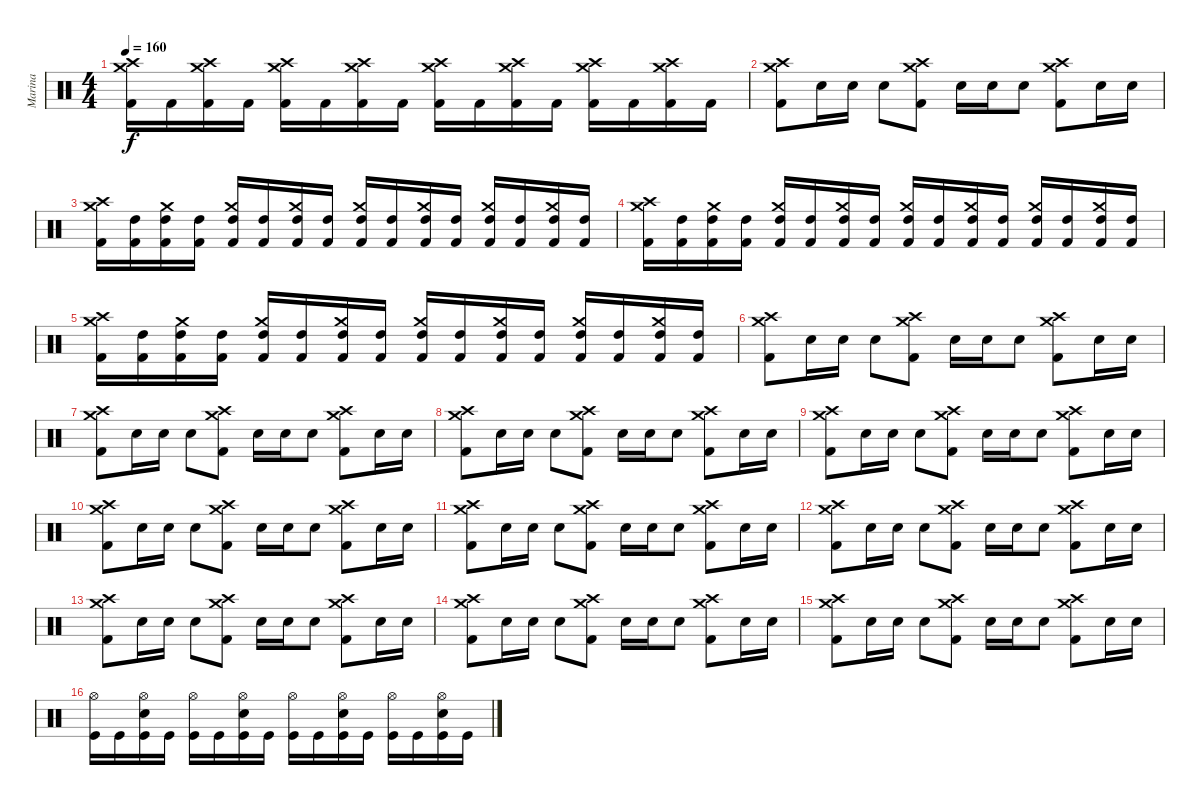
\track ("Marina" "Marina") {instrument percussion}
\staff {score}
\articulation defaults
\ts (4 4)
\tempo 160
\clef neutral
\ks c
("Kick (hit) 2" "Crash high (hit)" "Crash medium (hit)").16{dy f} "Kick (hit) 2".16 ("Kick (hit) 2" "Crash high (hit)" "Crash medium (hit)").16 "Kick (hit) 2".16 ("Kick (hit) 2" "Crash high (hit)" "Crash medium (hit)").16 "Kick (hit) 2".16 ("Kick (hit) 2" "Crash high (hit)" "Crash medium (hit)").16 "Kick (hit) 2".16 ("Kick (hit) 2" "Crash high (hit)" "Crash medium (hit)").16 "Kick (hit) 2".16 ("Kick (hit) 2" "Crash high (hit)" "Crash medium (hit)").16 "Kick (hit) 2".16 ("Kick (hit) 2" "Crash high (hit)" "Crash medium (hit)").16 "Kick (hit) 2".16 ("Kick (hit) 2" "Crash high (hit)" "Crash medium (hit)").16 "Kick (hit) 2".16 |
("Kick (hit) 2" "Crash high (hit)" "Crash medium (hit)").8 "Electric Snare (hit)".16 "Electric Snare (hit)".16 "Electric Snare (hit)".8 ("Kick (hit) 2" "Crash high (hit)" "Crash medium (hit)").8 "Electric Snare (hit)".16 "Electric Snare (hit)".16 "Electric Snare (hit)".8 ("Kick (hit) 2" "Crash high (hit)" "Crash medium (hit)").8 "Electric Snare (hit)".16 "Electric Snare (hit)".16 |
("Kick (hit) 2" "Crash high (hit)" "Crash medium (hit)").16 ("Kick (hit) 2" "High Tom (hit)").16 ("Kick (hit) 2" "High Tom (hit)" "Crash medium (hit)").16 ("Kick (hit) 2" "High Tom (hit)").16 ("Kick (hit) 2" "High Tom (hit)" "Crash medium (hit)").16 ("Kick (hit) 2" "High Tom (hit)").16 ("Kick (hit) 2" "High Tom (hit)" "Crash medium (hit)").16 ("Kick (hit) 2" "High Tom (hit)").16 ("Kick (hit) 2" "High Tom (hit)" "Crash medium (hit)").16 ("Kick (hit) 2" "High Tom (hit)").16 ("Kick (hit) 2" "High Tom (hit)" "Crash medium (hit)").16 ("Kick (hit) 2" "High Tom (hit)").16 ("Kick (hit) 2" "High Tom (hit)" "Crash medium (hit)").16 ("Kick (hit) 2" "High Tom (hit)").16 ("Kick (hit) 2" "High Tom (hit)" "Crash medium (hit)").16 ("Kick (hit) 2" "High Tom (hit)").16 |
("Kick (hit) 2" "Crash high (hit)" "Crash medium (hit)").16 ("Kick (hit) 2" "High Tom (hit)").16 ("Kick (hit) 2" "High Tom (hit)" "Crash medium (hit)").16 ("Kick (hit) 2" "High Tom (hit)").16 ("Kick (hit) 2" "High Tom (hit)" "Crash medium (hit)").16 ("Kick (hit) 2" "High Tom (hit)").16 ("Kick (hit) 2" "High Tom (hit)" "Crash medium (hit)").16 ("Kick (hit) 2" "High Tom (hit)").16 ("Kick (hit) 2" "High Tom (hit)" "Crash medium (hit)").16 ("Kick (hit) 2" "High Tom (hit)").16 ("Kick (hit) 2" "High Tom (hit)" "Crash medium (hit)").16 ("Kick (hit) 2" "High Tom (hit)").16 ("Kick (hit) 2" "High Tom (hit)" "Crash medium (hit)").16 ("Kick (hit) 2" "High Tom (hit)").16 ("Kick (hit) 2" "High Tom (hit)" "Crash medium (hit)").16 ("Kick (hit) 2" "High Tom (hit)").16 |
("Kick (hit) 2" "Crash high (hit)" "Crash medium (hit)").16 ("Kick (hit) 2" "High Tom (hit)").16 ("Kick (hit) 2" "High Tom (hit)" "Crash medium (hit)").16 ("Kick (hit) 2" "High Tom (hit)").16 ("Kick (hit) 2" "High Tom (hit)" "Crash medium (hit)").16 ("Kick (hit) 2" "High Tom (hit)").16 ("Kick (hit) 2" "High Tom (hit)" "Crash medium (hit)").16 ("Kick (hit) 2" "High Tom (hit)").16 ("Kick (hit) 2" "High Tom (hit)" "Crash medium (hit)").16 ("Kick (hit) 2" "High Tom (hit)").16 ("Kick (hit) 2" "High Tom (hit)" "Crash medium (hit)").16 ("Kick (hit) 2" "High Tom (hit)").16 ("Kick (hit) 2" "High Tom (hit)" "Crash medium (hit)").16 ("Kick (hit) 2" "High Tom (hit)").16 ("Kick (hit) 2" "High Tom (hit)" "Crash medium (hit)").16 ("Kick (hit) 2" "High Tom (hit)").16 |
("Kick (hit) 2" "Crash high (hit)" "Crash medium (hit)").8 "Electric Snare (hit)".16 "Electric Snare (hit)".16 "Electric Snare (hit)".8 ("Kick (hit) 2" "Crash high (hit)" "Crash medium (hit)").8 "Electric Snare (hit)".16 "Electric Snare (hit)".16 "Electric Snare (hit)".8 ("Kick (hit) 2" "Crash high (hit)" "Crash medium (hit)").8 "Electric Snare (hit)".16 "Electric Snare (hit)".16 |
("Kick (hit) 2" "Crash high (hit)" "Crash medium (hit)").8 "Electric Snare (hit)".16 "Electric Snare (hit)".16 "Electric Snare (hit)".8 ("Kick (hit) 2" "Crash high (hit)" "Crash medium (hit)").8 "Electric Snare (hit)".16 "Electric Snare (hit)".16 "Electric Snare (hit)".8 ("Kick (hit) 2" "Crash high (hit)" "Crash medium (hit)").8 "Electric Snare (hit)".16 "Electric Snare (hit)".16 |
("Kick (hit) 2" "Crash high (hit)" "Crash medium (hit)").8 "Electric Snare (hit)".16 "Electric Snare (hit)".16 "Electric Snare (hit)".8 ("Kick (hit) 2" "Crash high (hit)" "Crash medium (hit)").8 "Electric Snare (hit)".16 "Electric Snare (hit)".16 "Electric Snare (hit)".8 ("Kick (hit) 2" "Crash high (hit)" "Crash medium (hit)").8 "Electric Snare (hit)".16 "Electric Snare (hit)".16 |
("Kick (hit) 2" "Crash high (hit)" "Crash medium (hit)").8 "Electric Snare (hit)".16 "Electric Snare (hit)".16 "Electric Snare (hit)".8 ("Kick (hit) 2" "Crash high (hit)" "Crash medium (hit)").8 "Electric Snare (hit)".16 "Electric Snare (hit)".16 "Electric Snare (hit)".8 ("Kick (hit) 2" "Crash high (hit)" "Crash medium (hit)").8 "Electric Snare (hit)".16 "Electric Snare (hit)".16 |
("Kick (hit) 2" "Crash high (hit)" "Crash medium (hit)").8 "Electric Snare (hit)".16 "Electric Snare (hit)".16 "Electric Snare (hit)".8 ("Kick (hit) 2" "Crash high (hit)" "Crash medium (hit)").8 "Electric Snare (hit)".16 "Electric Snare (hit)".16 "Electric Snare (hit)".8 ("Kick (hit) 2" "Crash high (hit)" "Crash medium (hit)").8 "Electric Snare (hit)".16 "Electric Snare (hit)".16 |
("Kick (hit) 2" "Crash high (hit)" "Crash medium (hit)").8 "Electric Snare (hit)".16 "Electric Snare (hit)".16 "Electric Snare (hit)".8 ("Kick (hit) 2" "Crash high (hit)" "Crash medium (hit)").8 "Electric Snare (hit)".16 "Electric Snare (hit)".16 "Electric Snare (hit)".8 ("Kick (hit) 2" "Crash high (hit)" "Crash medium (hit)").8 "Electric Snare (hit)".16 "Electric Snare (hit)".16 |
("Kick (hit) 2" "Crash high (hit)" "Crash medium (hit)").8 "Electric Snare (hit)".16 "Electric Snare (hit)".16 "Electric Snare (hit)".8 ("Kick (hit) 2" "Crash high (hit)" "Crash medium (hit)").8 "Electric Snare (hit)".16 "Electric Snare (hit)".16 "Electric Snare (hit)".8 ("Kick (hit) 2" "Crash high (hit)" "Crash medium (hit)").8 "Electric Snare (hit)".16 "Electric Snare (hit)".16 |
("Kick (hit) 2" "Crash high (hit)" "Crash medium (hit)").8 "Electric Snare (hit)".16 "Electric Snare (hit)".16 "Electric Snare (hit)".8 ("Kick (hit) 2" "Crash high (hit)" "Crash medium (hit)").8 "Electric Snare (hit)".16 "Electric Snare (hit)".16 "Electric Snare (hit)".8 ("Kick (hit) 2" "Crash high (hit)" "Crash medium (hit)").8 "Electric Snare (hit)".16 "Electric Snare (hit)".16 |
("Kick (hit) 2" "Crash high (hit)" "Crash medium (hit)").8 "Electric Snare (hit)".16 "Electric Snare (hit)".16 "Electric Snare (hit)".8 ("Kick (hit) 2" "Crash high (hit)" "Crash medium (hit)").8 "Electric Snare (hit)".16 "Electric Snare (hit)".16 "Electric Snare (hit)".8 ("Kick (hit) 2" "Crash high (hit)" "Crash medium (hit)").8 "Electric Snare (hit)".16 "Electric Snare (hit)".16 |
("Kick (hit) 2" "Crash high (hit)" "Crash medium (hit)").8 "Electric Snare (hit)".16 "Electric Snare (hit)".16 "Electric Snare (hit)".8 ("Kick (hit) 2" "Crash high (hit)" "Crash medium (hit)").8 "Electric Snare (hit)".16 "Electric Snare (hit)".16 "Electric Snare (hit)".8 ("Kick (hit) 2" "Crash high (hit)" "Crash medium (hit)").8 "Electric Snare (hit)".16 "Electric Snare (hit)".16 |
("Hi-Hat (open)" "Kick (hit)").16 "Kick (hit)".16 ("Hi-Hat (open)" "Snare (hit) 2" "Kick (hit)").16 "Kick (hit)".16 ("Hi-Hat (open)" "Kick (hit)").16 "Kick (hit)".16 ("Hi-Hat (open)" "Snare (hit) 2" "Kick (hit)").16 "Kick (hit)".16 ("Hi-Hat (open)" "Kick (hit)").16 "Kick (hit)".16 ("Hi-Hat (open)" "Snare (hit) 2" "Kick (hit)").16 "Kick (hit)".16 ("Hi-Hat (open)" "Kick (hit)").16 "Kick (hit)".16 ("Hi-Hat (open)" "Snare (hit) 2" "Kick (hit)").16 "Kick (hit)".16
